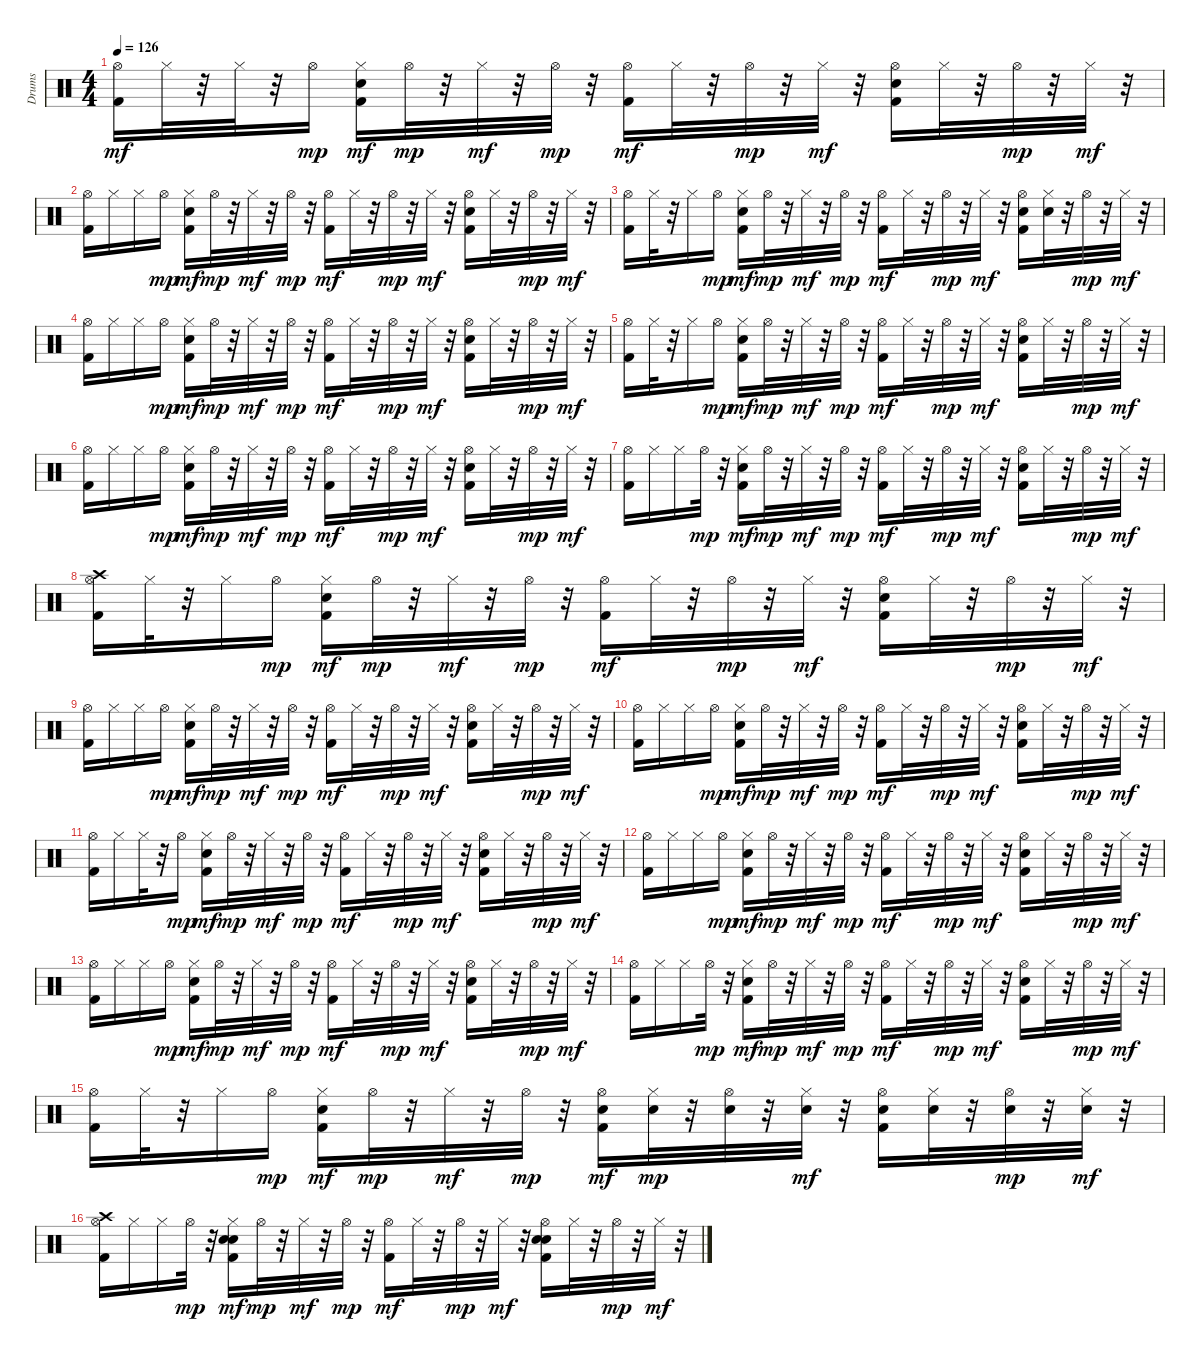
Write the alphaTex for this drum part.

\track ("Drums" "Drums") {instrument percussion}
\staff {score}
\articulation defaults
\ts (4 4)
\tempo 126
\clef neutral
\ks c
("Hi-Hat (open)" "Kick (hit) 2").16{dy mf} "Hi-Hat (closed)".32 r.32 "Hi-Hat (closed)".32 r.32 "Hi-Hat (open)".16{dy mp} ("Electric Snare (hit)" "Hi-Hat (closed)" "Kick (hit) 2").16{dy mf} "Hi-Hat (open)".32{dy mp} r.32 "Hi-Hat (closed)".32{dy mf} r.32 "Hi-Hat (open)".32{dy mp} r.32 ("Hi-Hat (open)" "Kick (hit) 2").16{dy mf} "Hi-Hat (closed)".32 r.32 "Hi-Hat (open)".32{dy mp} r.32 "Hi-Hat (closed)".32{dy mf} r.32 ("Electric Snare (hit)" "Hi-Hat (open)" "Kick (hit) 2").16 "Hi-Hat (closed)".32 r.32 "Hi-Hat (open)".32{dy mp} r.32 "Hi-Hat (closed)".32{dy mf} r.32 |
("Hi-Hat (open)" "Kick (hit) 2").16 "Hi-Hat (closed)".16 "Hi-Hat (closed)".16 "Hi-Hat (open)".16{dy mp} ("Electric Snare (hit)" "Hi-Hat (closed)" "Kick (hit) 2").16{dy mf} "Hi-Hat (open)".32{dy mp} r.32 "Hi-Hat (closed)".32{dy mf} r.32 "Hi-Hat (open)".32{dy mp} r.32 ("Hi-Hat (open)" "Kick (hit) 2").16{dy mf} "Hi-Hat (closed)".32 r.32 "Hi-Hat (open)".32{dy mp} r.32 "Hi-Hat (closed)".32{dy mf} r.32 ("Electric Snare (hit)" "Hi-Hat (open)" "Kick (hit) 2").16 "Hi-Hat (closed)".32 r.32 "Hi-Hat (open)".32{dy mp} r.32 "Hi-Hat (closed)".32{dy mf} r.32 |
("Hi-Hat (open)" "Kick (hit) 2").16 "Hi-Hat (closed)".32 r.32 "Hi-Hat (closed)".16 "Hi-Hat (open)".16{dy mp} ("Electric Snare (hit)" "Hi-Hat (closed)" "Kick (hit) 2").16{dy mf} "Hi-Hat (open)".32{dy mp} r.32 "Hi-Hat (closed)".32{dy mf} r.32 "Hi-Hat (open)".32{dy mp} r.32 ("Hi-Hat (open)" "Kick (hit) 2").16{dy mf} "Hi-Hat (closed)".32 r.32 "Hi-Hat (open)".32{dy mp} r.32 "Hi-Hat (closed)".32{dy mf} r.32 ("Electric Snare (hit)" "Hi-Hat (open)" "Kick (hit) 2").16 ("Hi-Hat (closed)" "Snare (hit) 2").32 r.32 "Hi-Hat (open)".32{dy mp} r.32 "Hi-Hat (closed)".32{dy mf} r.32 |
("Hi-Hat (open)" "Kick (hit) 2").16 "Hi-Hat (closed)".16 "Hi-Hat (closed)".16 "Hi-Hat (open)".16{dy mp} ("Electric Snare (hit)" "Hi-Hat (closed)" "Kick (hit) 2").16{dy mf} "Hi-Hat (open)".32{dy mp} r.32 "Hi-Hat (closed)".32{dy mf} r.32 "Hi-Hat (open)".32{dy mp} r.32 ("Hi-Hat (open)" "Kick (hit) 2").16{dy mf} "Hi-Hat (closed)".32 r.32 "Hi-Hat (open)".32{dy mp} r.32 "Hi-Hat (closed)".32{dy mf} r.32 ("Electric Snare (hit)" "Hi-Hat (open)" "Kick (hit) 2").16 "Hi-Hat (closed)".32 r.32 "Hi-Hat (open)".32{dy mp} r.32 "Hi-Hat (closed)".32{dy mf} r.32 |
("Hi-Hat (open)" "Kick (hit) 2").16 "Hi-Hat (closed)".32 r.32 "Hi-Hat (closed)".16 "Hi-Hat (open)".16{dy mp} ("Electric Snare (hit)" "Hi-Hat (closed)" "Kick (hit) 2").16{dy mf} "Hi-Hat (open)".32{dy mp} r.32 "Hi-Hat (closed)".32{dy mf} r.32 "Hi-Hat (open)".32{dy mp} r.32 ("Hi-Hat (open)" "Kick (hit) 2").16{dy mf} "Hi-Hat (closed)".32 r.32 "Hi-Hat (open)".32{dy mp} r.32 "Hi-Hat (closed)".32{dy mf} r.32 ("Electric Snare (hit)" "Hi-Hat (open)" "Kick (hit) 2").16 "Hi-Hat (closed)".32 r.32 "Hi-Hat (open)".32{dy mp} r.32 "Hi-Hat (closed)".32{dy mf} r.32 |
("Hi-Hat (open)" "Kick (hit) 2").16 "Hi-Hat (closed)".16 "Hi-Hat (closed)".16 "Hi-Hat (open)".16{dy mp} ("Electric Snare (hit)" "Hi-Hat (closed)" "Kick (hit) 2").16{dy mf} "Hi-Hat (open)".32{dy mp} r.32 "Hi-Hat (closed)".32{dy mf} r.32 "Hi-Hat (open)".32{dy mp} r.32 ("Hi-Hat (open)" "Kick (hit) 2").16{dy mf} "Hi-Hat (closed)".32 r.32 "Hi-Hat (open)".32{dy mp} r.32 "Hi-Hat (closed)".32{dy mf} r.32 ("Electric Snare (hit)" "Hi-Hat (open)" "Kick (hit) 2").16 "Hi-Hat (closed)".32 r.32 "Hi-Hat (open)".32{dy mp} r.32 "Hi-Hat (closed)".32{dy mf} r.32 |
("Hi-Hat (open)" "Kick (hit) 2").16 "Hi-Hat (closed)".16 "Hi-Hat (closed)".16 "Hi-Hat (open)".32{dy mp} r.32 ("Electric Snare (hit)" "Hi-Hat (closed)" "Kick (hit) 2").16{dy mf} "Hi-Hat (open)".32{dy mp} r.32 "Hi-Hat (closed)".32{dy mf} r.32 "Hi-Hat (open)".32{dy mp} r.32 ("Hi-Hat (open)" "Kick (hit) 2").16{dy mf} "Hi-Hat (closed)".32 r.32 "Hi-Hat (open)".32{dy mp} r.32 "Hi-Hat (closed)".32{dy mf} r.32 ("Electric Snare (hit)" "Hi-Hat (open)" "Kick (hit) 2").16 "Hi-Hat (closed)".32 r.32 "Hi-Hat (open)".32{dy mp} r.32 "Hi-Hat (closed)".32{dy mf} r.32 |
("Hi-Hat (open)" "Crash high (hit)" "Kick (hit) 2").16 "Hi-Hat (closed)".32 r.32 "Hi-Hat (closed)".16 "Hi-Hat (open)".16{dy mp} ("Electric Snare (hit)" "Hi-Hat (closed)" "Kick (hit) 2").16{dy mf} "Hi-Hat (open)".32{dy mp} r.32 "Hi-Hat (closed)".32{dy mf} r.32 "Hi-Hat (open)".32{dy mp} r.32 ("Hi-Hat (open)" "Kick (hit) 2").16{dy mf} "Hi-Hat (closed)".32 r.32 "Hi-Hat (open)".32{dy mp} r.32 "Hi-Hat (closed)".32{dy mf} r.32 ("Electric Snare (hit)" "Hi-Hat (open)" "Kick (hit) 2").16 "Hi-Hat (closed)".32 r.32 "Hi-Hat (open)".32{dy mp} r.32 "Hi-Hat (closed)".32{dy mf} r.32 |
("Hi-Hat (open)" "Kick (hit) 2").16 "Hi-Hat (closed)".16 "Hi-Hat (closed)".16 "Hi-Hat (open)".16{dy mp} ("Electric Snare (hit)" "Hi-Hat (closed)" "Kick (hit) 2").16{dy mf} "Hi-Hat (open)".32{dy mp} r.32 "Hi-Hat (closed)".32{dy mf} r.32 "Hi-Hat (open)".32{dy mp} r.32 ("Hi-Hat (open)" "Kick (hit) 2").16{dy mf} "Hi-Hat (closed)".32 r.32 "Hi-Hat (open)".32{dy mp} r.32 "Hi-Hat (closed)".32{dy mf} r.32 ("Electric Snare (hit)" "Hi-Hat (open)" "Kick (hit) 2").16 "Hi-Hat (closed)".32 r.32 "Hi-Hat (open)".32{dy mp} r.32 "Hi-Hat (closed)".32{dy mf} r.32 |
("Hi-Hat (open)" "Kick (hit) 2").16 "Hi-Hat (closed)".16 "Hi-Hat (closed)".16 "Hi-Hat (open)".16{dy mp} ("Electric Snare (hit)" "Hi-Hat (closed)" "Kick (hit) 2").16{dy mf} "Hi-Hat (open)".32{dy mp} r.32 "Hi-Hat (closed)".32{dy mf} r.32 "Hi-Hat (open)".32{dy mp} r.32 ("Hi-Hat (open)" "Kick (hit) 2").16{dy mf} "Hi-Hat (closed)".32 r.32 "Hi-Hat (open)".32{dy mp} r.32 "Hi-Hat (closed)".32{dy mf} r.32 ("Electric Snare (hit)" "Hi-Hat (open)" "Kick (hit) 2").16 "Hi-Hat (closed)".32 r.32 "Hi-Hat (open)".32{dy mp} r.32 "Hi-Hat (closed)".32{dy mf} r.32 |
("Hi-Hat (open)" "Kick (hit) 2").16 "Hi-Hat (closed)".16 "Hi-Hat (closed)".32 r.32 "Hi-Hat (open)".16{dy mp} ("Electric Snare (hit)" "Hi-Hat (closed)" "Kick (hit) 2").16{dy mf} "Hi-Hat (open)".32{dy mp} r.32 "Hi-Hat (closed)".32{dy mf} r.32 "Hi-Hat (open)".32{dy mp} r.32 ("Hi-Hat (open)" "Kick (hit) 2").16{dy mf} "Hi-Hat (closed)".32 r.32 "Hi-Hat (open)".32{dy mp} r.32 "Hi-Hat (closed)".32{dy mf} r.32 ("Electric Snare (hit)" "Hi-Hat (open)" "Kick (hit) 2").16 "Hi-Hat (closed)".32 r.32 "Hi-Hat (open)".32{dy mp} r.32 "Hi-Hat (closed)".32{dy mf} r.32 |
("Hi-Hat (open)" "Kick (hit) 2").16 "Hi-Hat (closed)".16 "Hi-Hat (closed)".16 "Hi-Hat (open)".16{dy mp} ("Electric Snare (hit)" "Hi-Hat (closed)" "Kick (hit) 2").16{dy mf} "Hi-Hat (open)".32{dy mp} r.32 "Hi-Hat (closed)".32{dy mf} r.32 "Hi-Hat (open)".32{dy mp} r.32 ("Hi-Hat (open)" "Kick (hit) 2").16{dy mf} "Hi-Hat (closed)".32 r.32 "Hi-Hat (open)".32{dy mp} r.32 "Hi-Hat (closed)".32{dy mf} r.32 ("Electric Snare (hit)" "Hi-Hat (open)" "Kick (hit) 2").16 "Hi-Hat (closed)".32 r.32 "Hi-Hat (open)".32{dy mp} r.32 "Hi-Hat (closed)".32{dy mf} r.32 |
("Hi-Hat (open)" "Kick (hit) 2").16 "Hi-Hat (closed)".16 "Hi-Hat (closed)".16 "Hi-Hat (open)".16{dy mp} ("Electric Snare (hit)" "Hi-Hat (closed)" "Kick (hit) 2").16{dy mf} "Hi-Hat (open)".32{dy mp} r.32 "Hi-Hat (closed)".32{dy mf} r.32 "Hi-Hat (open)".32{dy mp} r.32 ("Hi-Hat (open)" "Kick (hit) 2").16{dy mf} "Hi-Hat (closed)".32 r.32 "Hi-Hat (open)".32{dy mp} r.32 "Hi-Hat (closed)".32{dy mf} r.32 ("Electric Snare (hit)" "Hi-Hat (open)" "Kick (hit) 2").16 "Hi-Hat (closed)".32 r.32 "Hi-Hat (open)".32{dy mp} r.32 "Hi-Hat (closed)".32{dy mf} r.32 |
("Hi-Hat (open)" "Kick (hit) 2").16 "Hi-Hat (closed)".16 "Hi-Hat (closed)".16 "Hi-Hat (open)".32{dy mp} r.32 ("Electric Snare (hit)" "Hi-Hat (closed)" "Kick (hit) 2").16{dy mf} "Hi-Hat (open)".32{dy mp} r.32 "Hi-Hat (closed)".32{dy mf} r.32 "Hi-Hat (open)".32{dy mp} r.32 ("Hi-Hat (open)" "Kick (hit) 2").16{dy mf} "Hi-Hat (closed)".32 r.32 "Hi-Hat (open)".32{dy mp} r.32 "Hi-Hat (closed)".32{dy mf} r.32 ("Electric Snare (hit)" "Hi-Hat (open)" "Kick (hit) 2").16 "Hi-Hat (closed)".32 r.32 "Hi-Hat (open)".32{dy mp} r.32 "Hi-Hat (closed)".32{dy mf} r.32 |
("Hi-Hat (open)" "Kick (hit) 2").16 "Hi-Hat (closed)".32 r.32 "Hi-Hat (closed)".16 "Hi-Hat (open)".16{dy mp} ("Electric Snare (hit)" "Hi-Hat (closed)" "Kick (hit) 2").16{dy mf} "Hi-Hat (open)".32{dy mp} r.32 "Hi-Hat (closed)".32{dy mf} r.32 "Hi-Hat (open)".32{dy mp} r.32 ("Snare (hit) 2" "Hi-Hat (open)" "Kick (hit) 2").16{dy mf} ("Hi-Hat (closed)" "Snare (hit) 2").32{dy mp} r.32 ("Snare (hit) 2" "Hi-Hat (open)").32 r.32 ("Hi-Hat (closed)" "Snare (hit) 2").32{dy mf} r.32 ("Snare (hit) 2" "Hi-Hat (open)" "Kick (hit) 2").16 ("Snare (hit) 2" "Hi-Hat (closed)").32 r.32 ("Snare (hit) 2" "Hi-Hat (open)").32{dy mp} r.32 ("Snare (hit) 2" "Hi-Hat (closed)").32{dy mf} r.32 |
("Hi-Hat (open)" "Crash high (hit)" "Kick (hit) 2").16 "Hi-Hat (closed)".16 "Hi-Hat (closed)".16 "Hi-Hat (open)".32{dy mp} r.32 ("Electric Snare (hit)" "Hi-Hat (closed)" "Hand Clap (hit)" "Kick (hit) 2").16{dy mf} "Hi-Hat (open)".32{dy mp} r.32 "Hi-Hat (closed)".32{dy mf} r.32 "Hi-Hat (open)".32{dy mp} r.32 ("Hi-Hat (open)" "Kick (hit) 2").16{dy mf} "Hi-Hat (closed)".32 r.32 "Hi-Hat (open)".32{dy mp} r.32 "Hi-Hat (closed)".32{dy mf} r.32 ("Electric Snare (hit)" "Hi-Hat (open)" "Hand Clap (hit)" "Kick (hit) 2").16 "Hi-Hat (closed)".32 r.32 "Hi-Hat (open)".32{dy mp} r.32 "Hi-Hat (closed)".32{dy mf} r.32
